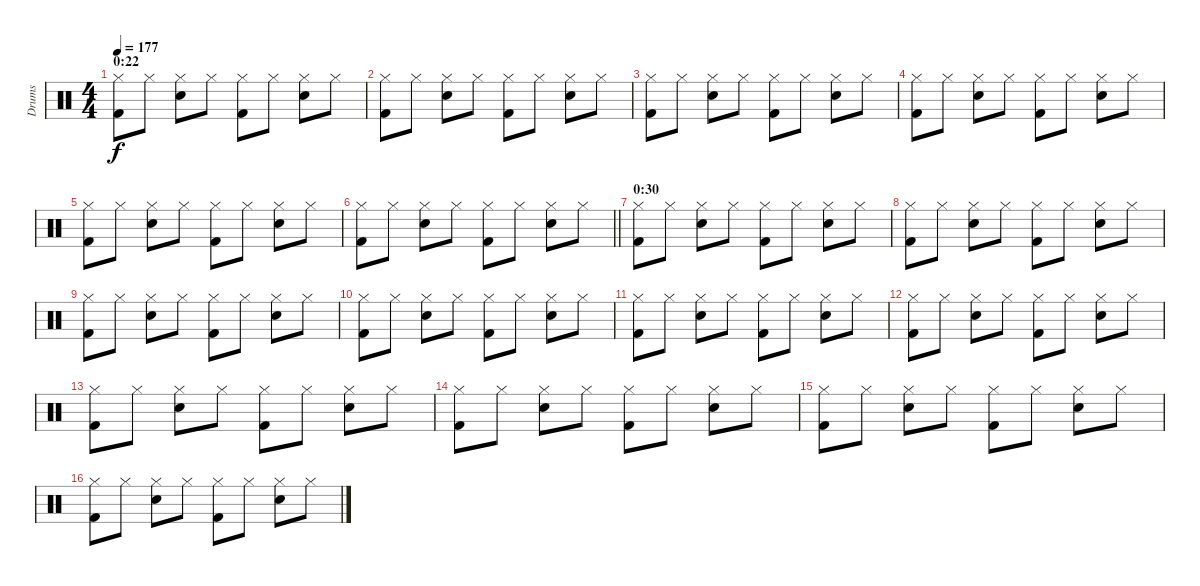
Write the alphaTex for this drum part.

\track ("Drums" "Drums") {instrument percussion}
\staff {score}
\articulation defaults
\ts (4 4)
\section ("" "0:22")
\tempo 177
\clef neutral
\ks c
("Hi-Hat (closed)" "Kick (hit) 2").8{dy f} "Hi-Hat (closed)".8 ("Hi-Hat (closed)" "Snare (hit) 2").8 "Hi-Hat (closed)".8 ("Hi-Hat (closed)" "Kick (hit) 2").8 "Hi-Hat (closed)".8 ("Hi-Hat (closed)" "Snare (hit) 2").8 "Hi-Hat (closed)".8 |
("Hi-Hat (closed)" "Kick (hit) 2").8 "Hi-Hat (closed)".8 ("Hi-Hat (closed)" "Snare (hit) 2").8 "Hi-Hat (closed)".8 ("Hi-Hat (closed)" "Kick (hit) 2").8 "Hi-Hat (closed)".8 ("Hi-Hat (closed)" "Snare (hit) 2").8 "Hi-Hat (closed)".8 |
("Hi-Hat (closed)" "Kick (hit) 2").8 "Hi-Hat (closed)".8 ("Hi-Hat (closed)" "Snare (hit) 2").8 "Hi-Hat (closed)".8 ("Hi-Hat (closed)" "Kick (hit) 2").8 "Hi-Hat (closed)".8 ("Hi-Hat (closed)" "Snare (hit) 2").8 "Hi-Hat (closed)".8 |
("Hi-Hat (closed)" "Kick (hit) 2").8 "Hi-Hat (closed)".8 ("Hi-Hat (closed)" "Snare (hit) 2").8 "Hi-Hat (closed)".8 ("Hi-Hat (closed)" "Kick (hit) 2").8 "Hi-Hat (closed)".8 ("Hi-Hat (closed)" "Snare (hit) 2").8 "Hi-Hat (closed)".8 |
("Hi-Hat (closed)" "Kick (hit) 2").8 "Hi-Hat (closed)".8 ("Hi-Hat (closed)" "Snare (hit) 2").8 "Hi-Hat (closed)".8 ("Hi-Hat (closed)" "Kick (hit) 2").8 "Hi-Hat (closed)".8 ("Hi-Hat (closed)" "Snare (hit) 2").8 "Hi-Hat (closed)".8 |
\barLineRight lightlight
("Hi-Hat (closed)" "Kick (hit) 2").8 "Hi-Hat (closed)".8 ("Hi-Hat (closed)" "Snare (hit) 2").8 "Hi-Hat (closed)".8 ("Hi-Hat (closed)" "Kick (hit) 2").8 "Hi-Hat (closed)".8 ("Hi-Hat (closed)" "Snare (hit) 2").8 "Hi-Hat (closed)".8 |
\section ("" "0:30")
("Hi-Hat (closed)" "Kick (hit) 2").8 "Hi-Hat (closed)".8 ("Hi-Hat (closed)" "Snare (hit) 2").8 "Hi-Hat (closed)".8 ("Hi-Hat (closed)" "Kick (hit) 2").8 "Hi-Hat (closed)".8 ("Hi-Hat (closed)" "Snare (hit) 2").8 "Hi-Hat (closed)".8 |
("Hi-Hat (closed)" "Kick (hit) 2").8 "Hi-Hat (closed)".8 ("Hi-Hat (closed)" "Snare (hit) 2").8 "Hi-Hat (closed)".8 ("Hi-Hat (closed)" "Kick (hit) 2").8 "Hi-Hat (closed)".8 ("Hi-Hat (closed)" "Snare (hit) 2").8 "Hi-Hat (closed)".8 |
("Hi-Hat (closed)" "Kick (hit) 2").8 "Hi-Hat (closed)".8 ("Hi-Hat (closed)" "Snare (hit) 2").8 "Hi-Hat (closed)".8 ("Hi-Hat (closed)" "Kick (hit) 2").8 "Hi-Hat (closed)".8 ("Hi-Hat (closed)" "Snare (hit) 2").8 "Hi-Hat (closed)".8 |
("Hi-Hat (closed)" "Kick (hit) 2").8 "Hi-Hat (closed)".8 ("Hi-Hat (closed)" "Snare (hit) 2").8 "Hi-Hat (closed)".8 ("Hi-Hat (closed)" "Kick (hit) 2").8 "Hi-Hat (closed)".8 ("Hi-Hat (closed)" "Snare (hit) 2").8 "Hi-Hat (closed)".8 |
("Hi-Hat (closed)" "Kick (hit) 2").8 "Hi-Hat (closed)".8 ("Hi-Hat (closed)" "Snare (hit) 2").8 "Hi-Hat (closed)".8 ("Hi-Hat (closed)" "Kick (hit) 2").8 "Hi-Hat (closed)".8 ("Hi-Hat (closed)" "Snare (hit) 2").8 "Hi-Hat (closed)".8 |
("Hi-Hat (closed)" "Kick (hit) 2").8 "Hi-Hat (closed)".8 ("Hi-Hat (closed)" "Snare (hit) 2").8 "Hi-Hat (closed)".8 ("Hi-Hat (closed)" "Kick (hit) 2").8 "Hi-Hat (closed)".8 ("Hi-Hat (closed)" "Snare (hit) 2").8 "Hi-Hat (closed)".8 |
("Hi-Hat (closed)" "Kick (hit) 2").8 "Hi-Hat (closed)".8 ("Hi-Hat (closed)" "Snare (hit) 2").8 "Hi-Hat (closed)".8 ("Hi-Hat (closed)" "Kick (hit) 2").8 "Hi-Hat (closed)".8 ("Hi-Hat (closed)" "Snare (hit) 2").8 "Hi-Hat (closed)".8 |
("Hi-Hat (closed)" "Kick (hit) 2").8 "Hi-Hat (closed)".8 ("Hi-Hat (closed)" "Snare (hit) 2").8 "Hi-Hat (closed)".8 ("Hi-Hat (closed)" "Kick (hit) 2").8 "Hi-Hat (closed)".8 ("Hi-Hat (closed)" "Snare (hit) 2").8 "Hi-Hat (closed)".8 |
("Hi-Hat (closed)" "Kick (hit) 2").8 "Hi-Hat (closed)".8 ("Hi-Hat (closed)" "Snare (hit) 2").8 "Hi-Hat (closed)".8 ("Hi-Hat (closed)" "Kick (hit) 2").8 "Hi-Hat (closed)".8 ("Hi-Hat (closed)" "Snare (hit) 2").8 "Hi-Hat (closed)".8 |
("Hi-Hat (closed)" "Kick (hit) 2").8 "Hi-Hat (closed)".8 ("Hi-Hat (closed)" "Snare (hit) 2").8 "Hi-Hat (closed)".8 ("Hi-Hat (closed)" "Kick (hit) 2").8 "Hi-Hat (closed)".8 ("Hi-Hat (closed)" "Snare (hit) 2").8 "Hi-Hat (closed)".8
